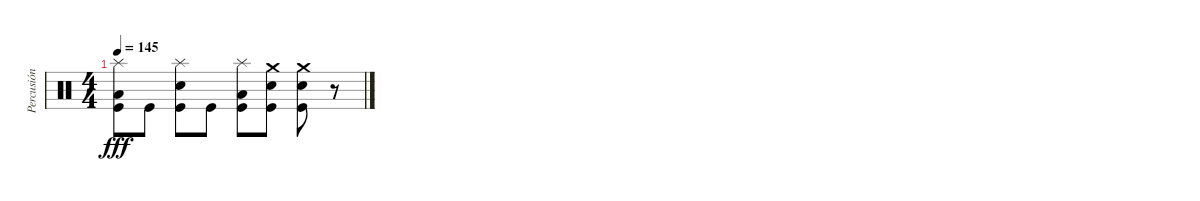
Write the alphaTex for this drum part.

\track ("Percusión" "Percusión") {instrument percussion}
\staff {score}
\articulation defaults
\ts (4 4)
\tempo 145
\clef neutral
\ks c
("Splash (hit)" "Low Floor Tom (hit)" "Kick (hit)").8{dy fff} "Kick (hit)".8 ("Splash (hit)" "Snare (hit) 2" "Kick (hit)").8 "Kick (hit)".8 ("Splash (hit)" "Low Floor Tom (hit)" "Kick (hit)").8 ("Crash medium (hit)" "Snare (hit) 2" "Kick (hit)").8 ("Crash medium (hit)" "Snare (hit) 2" "Kick (hit)").8 r.8
